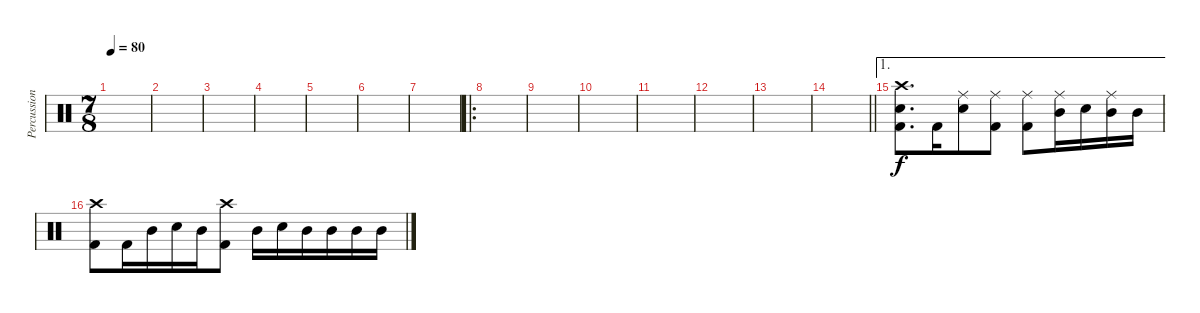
\track ("Percussions" "Percussion") {instrument percussion}
\staff {score}
\articulation defaults
\ts (7 8)
\tempo 80
\clef neutral
\ks c
|
|
|
|
|
|
|
\ro
|
|
|
|
|
|
\barLineRight lightlight
|
\ae 1
("Crash high (hit)" "Snare (hit) 2" "Kick (hit) 2").8{d volume 12} "Kick (hit) 2".16 ("Ride (middle)" "Snare (hit) 2").8 ("Ride (middle)" "Kick (hit) 2").8 ("Ride (middle)" "Kick (hit) 2").8 ("Ride (middle)" "Mid Tom (hit)").16 "Snare (hit) 2".16 ("Ride (middle)" "Mid Tom (hit)").16 "Mid Tom (hit)".16 |
("Crash high (hit)" "Kick (hit) 2").8 "Kick (hit) 2".16 "Mid Tom (hit)".16 "Snare (hit) 2".16 "Mid Tom (hit)".16 ("Crash high (hit)" "Kick (hit) 2").8 "Mid Tom (hit)".16 "Snare (hit) 2".16 "Mid Tom (hit)".16 "Mid Tom (hit)".16 "Mid Tom (hit)".16 "Mid Tom (hit)".16
